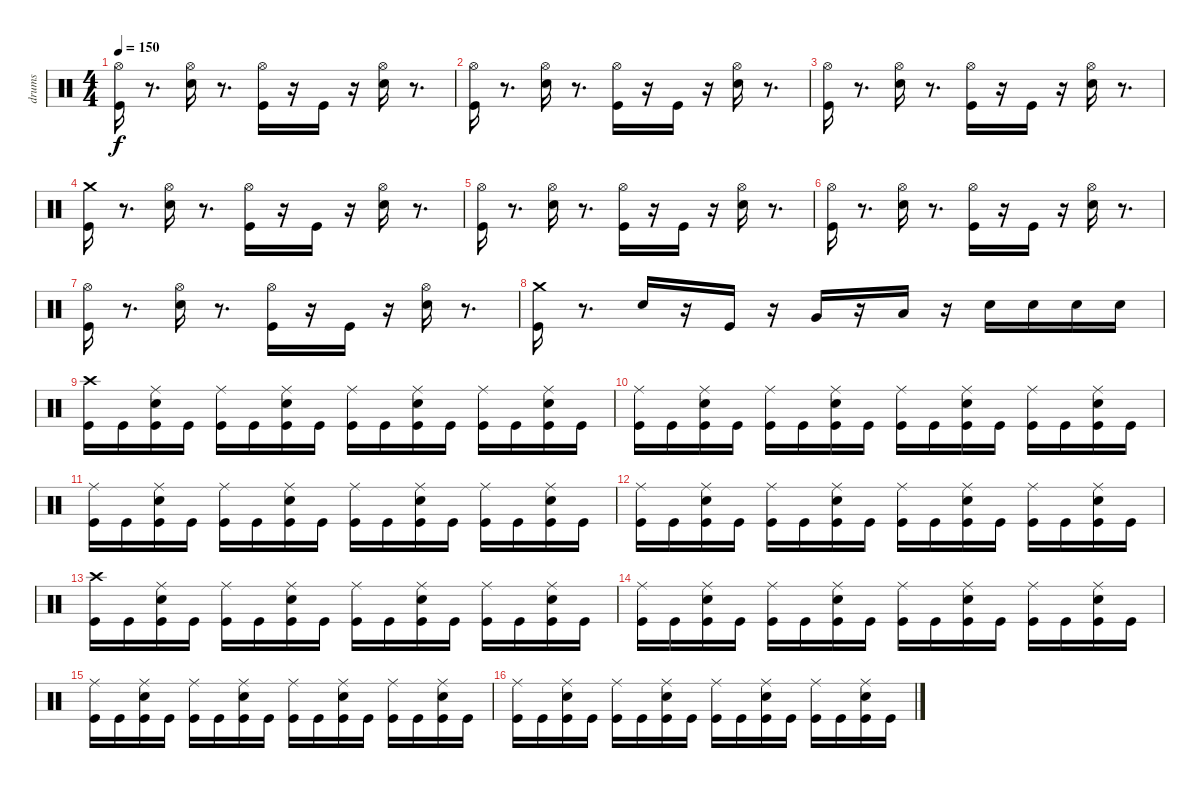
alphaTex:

\track ("drums" "drums") {instrument percussion}
\staff {score}
\articulation defaults
\ts (4 4)
\tempo 150
\clef neutral
\ks c
("Hi-Hat (open)" "Kick (hit)").16{dy f} r.8{d} ("Hi-Hat (open)" "Electric Snare (hit)").16 r.8{d} ("Hi-Hat (open)" "Kick (hit)").16 r.16 "Kick (hit)".16 r.16 ("Hi-Hat (open)" "Electric Snare (hit)").16 r.8{d} |
("Kick (hit)" "Hi-Hat (open)").16 r.8{d} ("Electric Snare (hit)" "Hi-Hat (open)").16 r.8{d} ("Kick (hit)" "Hi-Hat (open)").16 r.16 "Kick (hit)".16 r.16 ("Electric Snare (hit)" "Hi-Hat (open)").16 r.8{d} |
("Hi-Hat (open)" "Kick (hit)").16 r.8{d} ("Hi-Hat (open)" "Electric Snare (hit)").16 r.8{d} ("Hi-Hat (open)" "Kick (hit)").16 r.16 "Kick (hit)".16 r.16 ("Hi-Hat (open)" "Electric Snare (hit)").16 r.8{d} |
("Crash medium (hit)" "Kick (hit)").16 r.8{d} ("Hi-Hat (open)" "Electric Snare (hit)").16 r.8{d} ("Hi-Hat (open)" "Kick (hit)").16 r.16 "Kick (hit)".16 r.16 ("Hi-Hat (open)" "Electric Snare (hit)").16 r.8{d} |
("Hi-Hat (open)" "Kick (hit)").16 r.8{d} ("Hi-Hat (open)" "Electric Snare (hit)").16 r.8{d} ("Hi-Hat (open)" "Kick (hit)").16 r.16 "Kick (hit)".16 r.16 ("Hi-Hat (open)" "Electric Snare (hit)").16 r.8{d} |
("Kick (hit)" "Hi-Hat (open)").16 r.8{d} ("Electric Snare (hit)" "Hi-Hat (open)").16 r.8{d} ("Kick (hit)" "Hi-Hat (open)").16 r.16 "Kick (hit)".16 r.16 ("Electric Snare (hit)" "Hi-Hat (open)").16 r.8{d} |
("Hi-Hat (open)" "Kick (hit)").16 r.8{d} ("Hi-Hat (open)" "Electric Snare (hit)").16 r.8{d} ("Hi-Hat (open)" "Kick (hit)").16 r.16 "Kick (hit)".16 r.16 ("Hi-Hat (open)" "Electric Snare (hit)").16 r.8{d} |
("Kick (hit)" "Crash medium (hit)").16 r.8{d} "Electric Snare (hit)".16 r.16 "Kick (hit)".16 r.16 "Very Low Tom (hit)".16 r.16 "Low Floor Tom (hit)".16 r.16 "Electric Snare (hit)".16 "Electric Snare (hit)".16 "Electric Snare (hit)".16 "Electric Snare (hit)".16 |
("Crash high (hit)" "Kick (hit)").16 "Kick (hit)".16 ("Ride (middle)" "Kick (hit)" "Electric Snare (hit)").16 "Kick (hit)".16 ("Ride (middle)" "Kick (hit)").16 "Kick (hit)".16 ("Ride (middle)" "Kick (hit)" "Electric Snare (hit)").16 "Kick (hit)".16 ("Ride (middle)" "Kick (hit)").16 "Kick (hit)".16 ("Ride (middle)" "Electric Snare (hit)" "Kick (hit)").16 "Kick (hit)".16 ("Ride (middle)" "Kick (hit)").16 "Kick (hit)".16 ("Ride (middle)" "Kick (hit)" "Electric Snare (hit)").16 "Kick (hit)".16 |
("Ride (middle)" "Kick (hit)").16 "Kick (hit)".16 ("Ride (middle)" "Kick (hit)" "Electric Snare (hit)").16 "Kick (hit)".16 ("Ride (middle)" "Kick (hit)").16 "Kick (hit)".16 ("Ride (middle)" "Kick (hit)" "Electric Snare (hit)").16 "Kick (hit)".16 ("Ride (middle)" "Kick (hit)").16 "Kick (hit)".16 ("Ride (middle)" "Electric Snare (hit)" "Kick (hit)").16 "Kick (hit)".16 ("Ride (middle)" "Kick (hit)").16 "Kick (hit)".16 ("Ride (middle)" "Kick (hit)" "Electric Snare (hit)").16 "Kick (hit)".16 |
("Ride (middle)" "Kick (hit)").16 "Kick (hit)".16 ("Ride (middle)" "Kick (hit)" "Electric Snare (hit)").16 "Kick (hit)".16 ("Ride (middle)" "Kick (hit)").16 "Kick (hit)".16 ("Ride (middle)" "Kick (hit)" "Electric Snare (hit)").16 "Kick (hit)".16 ("Ride (middle)" "Kick (hit)").16 "Kick (hit)".16 ("Ride (middle)" "Electric Snare (hit)" "Kick (hit)").16 "Kick (hit)".16 ("Ride (middle)" "Kick (hit)").16 "Kick (hit)".16 ("Ride (middle)" "Kick (hit)" "Electric Snare (hit)").16 "Kick (hit)".16 |
("Ride (middle)" "Kick (hit)").16 "Kick (hit)".16 ("Ride (middle)" "Kick (hit)" "Electric Snare (hit)").16 "Kick (hit)".16 ("Ride (middle)" "Kick (hit)").16 "Kick (hit)".16 ("Ride (middle)" "Kick (hit)" "Electric Snare (hit)").16 "Kick (hit)".16 ("Ride (middle)" "Kick (hit)").16 "Kick (hit)".16 ("Ride (middle)" "Electric Snare (hit)" "Kick (hit)").16 "Kick (hit)".16 ("Ride (middle)" "Kick (hit)").16 "Kick (hit)".16 ("Ride (middle)" "Kick (hit)" "Electric Snare (hit)").16 "Kick (hit)".16 |
("Crash high (hit)" "Kick (hit)").16 "Kick (hit)".16 ("Ride (middle)" "Kick (hit)" "Electric Snare (hit)").16 "Kick (hit)".16 ("Ride (middle)" "Kick (hit)").16 "Kick (hit)".16 ("Ride (middle)" "Kick (hit)" "Electric Snare (hit)").16 "Kick (hit)".16 ("Ride (middle)" "Kick (hit)").16 "Kick (hit)".16 ("Ride (middle)" "Electric Snare (hit)" "Kick (hit)").16 "Kick (hit)".16 ("Ride (middle)" "Kick (hit)").16 "Kick (hit)".16 ("Ride (middle)" "Kick (hit)" "Electric Snare (hit)").16 "Kick (hit)".16 |
("Ride (middle)" "Kick (hit)").16 "Kick (hit)".16 ("Ride (middle)" "Kick (hit)" "Electric Snare (hit)").16 "Kick (hit)".16 ("Ride (middle)" "Kick (hit)").16 "Kick (hit)".16 ("Ride (middle)" "Kick (hit)" "Electric Snare (hit)").16 "Kick (hit)".16 ("Ride (middle)" "Kick (hit)").16 "Kick (hit)".16 ("Ride (middle)" "Electric Snare (hit)" "Kick (hit)").16 "Kick (hit)".16 ("Ride (middle)" "Kick (hit)").16 "Kick (hit)".16 ("Ride (middle)" "Kick (hit)" "Electric Snare (hit)").16 "Kick (hit)".16 |
("Ride (middle)" "Kick (hit)").16 "Kick (hit)".16 ("Ride (middle)" "Kick (hit)" "Electric Snare (hit)").16 "Kick (hit)".16 ("Ride (middle)" "Kick (hit)").16 "Kick (hit)".16 ("Ride (middle)" "Kick (hit)" "Electric Snare (hit)").16 "Kick (hit)".16 ("Ride (middle)" "Kick (hit)").16 "Kick (hit)".16 ("Ride (middle)" "Electric Snare (hit)" "Kick (hit)").16 "Kick (hit)".16 ("Ride (middle)" "Kick (hit)").16 "Kick (hit)".16 ("Ride (middle)" "Kick (hit)" "Electric Snare (hit)").16 "Kick (hit)".16 |
("Ride (middle)" "Kick (hit)").16 "Kick (hit)".16 ("Ride (middle)" "Kick (hit)" "Electric Snare (hit)").16 "Kick (hit)".16 ("Ride (middle)" "Kick (hit)").16 "Kick (hit)".16 ("Ride (middle)" "Kick (hit)" "Electric Snare (hit)").16 "Kick (hit)".16 ("Ride (middle)" "Kick (hit)").16 "Kick (hit)".16 ("Ride (middle)" "Electric Snare (hit)" "Kick (hit)").16 "Kick (hit)".16 ("Ride (middle)" "Kick (hit)").16 "Kick (hit)".16 ("Ride (middle)" "Kick (hit)" "Electric Snare (hit)").16 "Kick (hit)".16
